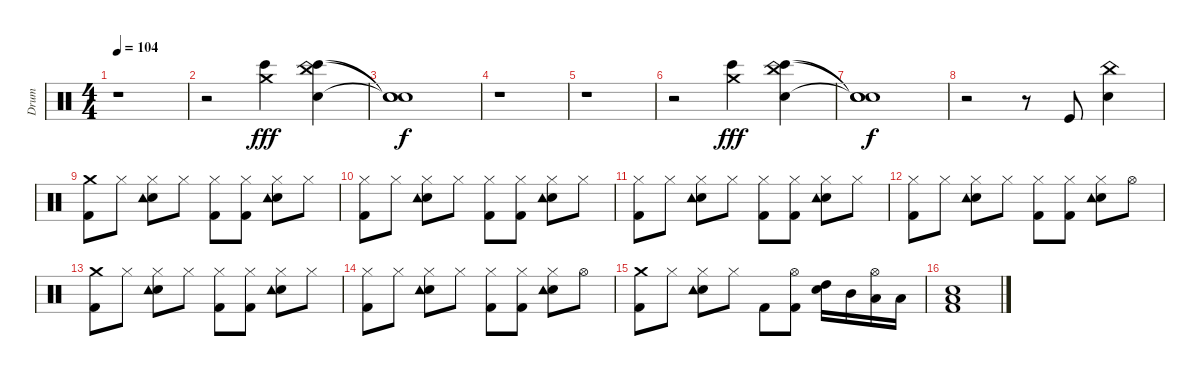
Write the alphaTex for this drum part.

\track ("Drum" "Drum") {instrument percussion}
\staff {score}
\articulation defaults
\ts (4 4)
\tempo 104
\clef neutral
\ks c
r.1{dy fff} |
r.2 ("Crash medium (hit)" "Bongo High (hit)").4 ("China (hit)" "Bongo High (hit)" "Hand Clap (hit)").4 |
("Snare (hit)"{t} "Snare (hit)"{t} "Snare (hit)"{t}).1{dy f} |
r.1 |
r.1 |
r.2 ("Crash medium (hit)" "Bongo High (hit)").4{dy fff} ("China (hit)" "Bongo High (hit)" "Hand Clap (hit)").4 |
("Snare (hit)"{t} "Snare (hit)"{t} "Snare (hit)"{t}).1{dy f} |
r.2 r.8 "Kick (hit)".8 ("Snare (hit) 2" "China (hit)").4 |
("Crash medium (hit)" "Kick (hit) 2").8 "Hi-Hat (closed)".8 ("Snare (hit) 2" "Hi-Hat (closed)" "Tambourine (hit)").8 "Hi-Hat (closed)".8 ("Hi-Hat (closed)" "Kick (hit) 2").8 ("Hi-Hat (closed)" "Kick (hit) 2").8 ("Snare (hit) 2" "Hi-Hat (closed)" "Tambourine (hit)").8 "Hi-Hat (closed)".8 |
("Hi-Hat (closed)" "Kick (hit) 2").8 "Hi-Hat (closed)".8 ("Snare (hit) 2" "Hi-Hat (closed)" "Tambourine (hit)").8 "Hi-Hat (closed)".8 ("Hi-Hat (closed)" "Kick (hit) 2").8 ("Hi-Hat (closed)" "Kick (hit) 2").8 ("Snare (hit) 2" "Hi-Hat (closed)" "Tambourine (hit)").8 "Hi-Hat (closed)".8 |
("Hi-Hat (closed)" "Kick (hit) 2").8 "Hi-Hat (closed)".8 ("Snare (hit) 2" "Hi-Hat (closed)" "Tambourine (hit)").8 "Hi-Hat (closed)".8 ("Hi-Hat (closed)" "Kick (hit) 2").8 ("Hi-Hat (closed)" "Kick (hit) 2").8 ("Snare (hit) 2" "Hi-Hat (closed)" "Tambourine (hit)").8 "Hi-Hat (closed)".8 |
("Hi-Hat (closed)" "Kick (hit) 2").8 "Hi-Hat (closed)".8 ("Snare (hit) 2" "Hi-Hat (closed)" "Tambourine (hit)").8 "Hi-Hat (closed)".8 ("Hi-Hat (closed)" "Kick (hit) 2").8 ("Hi-Hat (closed)" "Kick (hit) 2").8 ("Snare (hit) 2" "Hi-Hat (closed)" "Tambourine (hit)").8 "Hi-Hat (open)".8 |
("Crash medium (hit)" "Kick (hit) 2").8 "Hi-Hat (closed)".8 ("Snare (hit) 2" "Hi-Hat (closed)" "Tambourine (hit)").8 "Hi-Hat (closed)".8 ("Hi-Hat (closed)" "Kick (hit) 2").8 ("Hi-Hat (closed)" "Kick (hit) 2").8 ("Snare (hit) 2" "Hi-Hat (closed)" "Tambourine (hit)").8 "Hi-Hat (closed)".8 |
("Hi-Hat (closed)" "Kick (hit) 2").8 "Hi-Hat (closed)".8 ("Snare (hit) 2" "Hi-Hat (closed)" "Tambourine (hit)").8 "Hi-Hat (closed)".8 ("Hi-Hat (closed)" "Kick (hit) 2").8 ("Hi-Hat (closed)" "Kick (hit) 2").8 ("Snare (hit) 2" "Hi-Hat (closed)" "Tambourine (hit)").8 "Hi-Hat (open)".8 |
("Crash medium (hit)" "Kick (hit) 2").8 "Hi-Hat (closed)".8 ("Snare (hit) 2" "Hi-Hat (closed)" "Tambourine (hit)").8 "Hi-Hat (closed)".8 "Kick (hit) 2".8 ("Hi-Hat (open)" "Kick (hit) 2").8 ("Snare (hit) 2" "High Tom (hit)").16 "Mid Tom (hit)".16 ("Hi-Hat (open)" "Low Tom (hit)").16 "Low Tom (hit)".16 |
("Snare (hit) 2" "Low Tom (hit)" "Kick (hit) 2").1
